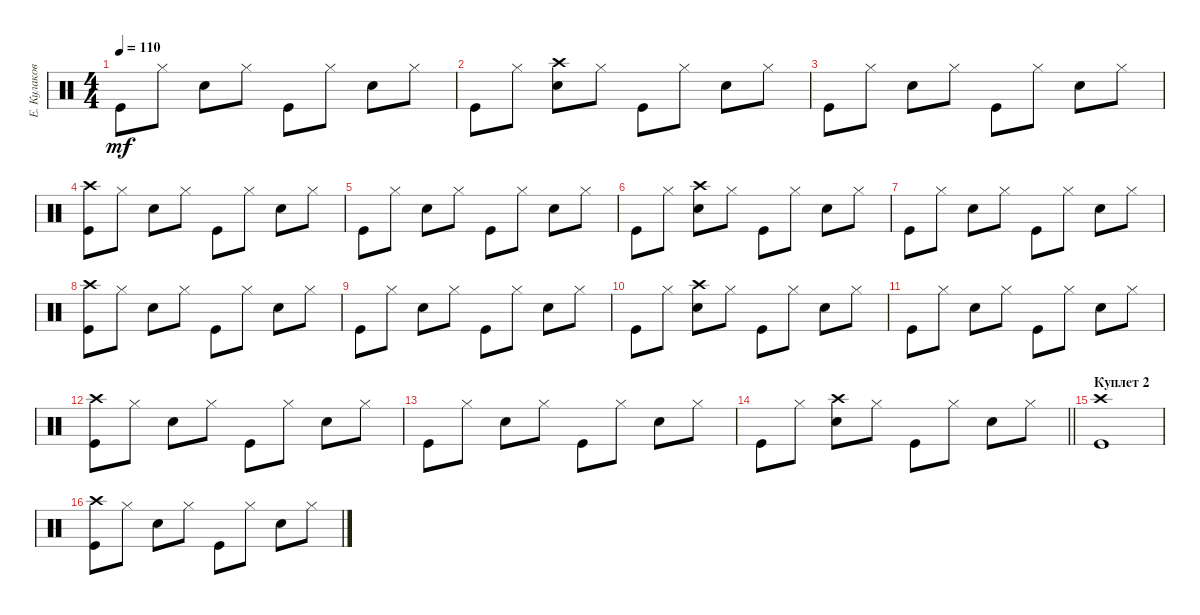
\track ("Е. Кулаков" "Е. Кулаков") {instrument percussion}
\staff {score}
\articulation defaults
\ts (4 4)
\tempo 110
\clef neutral
\ks c "Kick (hit)".8{dy mf} "Hi-Hat (closed)".8 "Snare (hit) 2".8 "Hi-Hat (closed)".8 "Kick (hit)".8 "Hi-Hat (closed)".8 "Snare (hit) 2".8 "Hi-Hat (closed)".8
|
"Kick (hit)".8 "Hi-Hat (closed)".8 ("Snare (hit) 2" "Crash high (hit)").8 "Hi-Hat (closed)".8 "Kick (hit)".8 "Hi-Hat (closed)".8 "Snare (hit) 2".8 "Hi-Hat (closed)".8 |
"Kick (hit)".8 "Hi-Hat (closed)".8 "Snare (hit) 2".8 "Hi-Hat (closed)".8 "Kick (hit)".8 "Hi-Hat (closed)".8 "Snare (hit) 2".8 "Hi-Hat (closed)".8 |
("Kick (hit)" "Crash high (hit)").8 "Hi-Hat (closed)".8 "Snare (hit) 2".8 "Hi-Hat (closed)".8 "Kick (hit)".8 "Hi-Hat (closed)".8 "Snare (hit) 2".8 "Hi-Hat (closed)".8 |
"Kick (hit)".8 "Hi-Hat (closed)".8 "Snare (hit) 2".8 "Hi-Hat (closed)".8 "Kick (hit)".8 "Hi-Hat (closed)".8 "Snare (hit) 2".8 "Hi-Hat (closed)".8 |
"Kick (hit)".8 "Hi-Hat (closed)".8 ("Snare (hit) 2" "Crash high (hit)").8 "Hi-Hat (closed)".8 "Kick (hit)".8 "Hi-Hat (closed)".8 "Snare (hit) 2".8 "Hi-Hat (closed)".8 |
"Kick (hit)".8 "Hi-Hat (closed)".8 "Snare (hit) 2".8 "Hi-Hat (closed)".8 "Kick (hit)".8 "Hi-Hat (closed)".8 "Snare (hit) 2".8 "Hi-Hat (closed)".8 |
("Kick (hit)" "Crash high (hit)").8 "Hi-Hat (closed)".8 "Snare (hit) 2".8 "Hi-Hat (closed)".8 "Kick (hit)".8 "Hi-Hat (closed)".8 "Snare (hit) 2".8 "Hi-Hat (closed)".8 |
"Kick (hit)".8 "Hi-Hat (closed)".8 "Snare (hit) 2".8 "Hi-Hat (closed)".8 "Kick (hit)".8 "Hi-Hat (closed)".8 "Snare (hit) 2".8 "Hi-Hat (closed)".8 |
"Kick (hit)".8 "Hi-Hat (closed)".8 ("Snare (hit) 2" "Crash high (hit)").8 "Hi-Hat (closed)".8 "Kick (hit)".8 "Hi-Hat (closed)".8 "Snare (hit) 2".8 "Hi-Hat (closed)".8 |
"Kick (hit)".8 "Hi-Hat (closed)".8 "Snare (hit) 2".8 "Hi-Hat (closed)".8 "Kick (hit)".8 "Hi-Hat (closed)".8 "Snare (hit) 2".8 "Hi-Hat (closed)".8 |
("Kick (hit)" "Crash high (hit)").8 "Hi-Hat (closed)".8 "Snare (hit) 2".8 "Hi-Hat (closed)".8 "Kick (hit)".8 "Hi-Hat (closed)".8 "Snare (hit) 2".8 "Hi-Hat (closed)".8 |
"Kick (hit)".8 "Hi-Hat (closed)".8 "Snare (hit) 2".8 "Hi-Hat (closed)".8 "Kick (hit)".8 "Hi-Hat (closed)".8 "Snare (hit) 2".8 "Hi-Hat (closed)".8 |
\barLineRight lightlight "Kick (hit)".8 "Hi-Hat (closed)".8
("Snare (hit) 2" "Crash high (hit)").8 "Hi-Hat (closed)".8 "Kick (hit)".8 "Hi-Hat (closed)".8 "Snare (hit) 2".8 "Hi-Hat (closed)".8 |
\section ("" "Куплет 2")
("Kick (hit)" "Crash high (hit)").1 |
("Kick (hit)" "Crash high (hit)").8 "Hi-Hat (closed)".8 "Snare (hit) 2".8 "Hi-Hat (closed)".8 "Kick (hit)".8 "Hi-Hat (closed)".8 "Snare (hit) 2".8 "Hi-Hat (closed)".8
